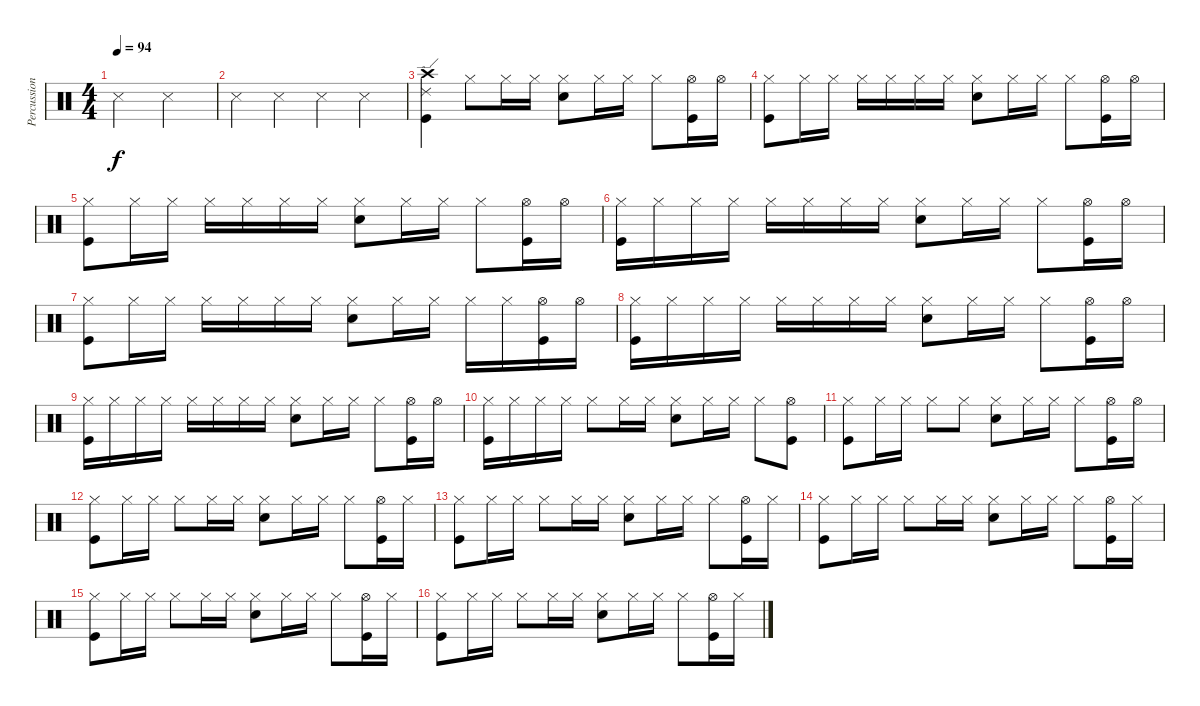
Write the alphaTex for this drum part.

\track ("Percussions" "Percussion") {instrument percussion}
\staff {score}
\articulation defaults
\ts (4 4)
\tempo 94
\clef neutral
\ks c "Snare (side stick) 3".2{dy f} "Snare (side stick) 3".2
|
"Snare (side stick) 3".4 "Snare (side stick) 3".4 "Snare (side stick) 3".4 "Snare (side stick) 3".4 |
("Crash high (hit)" "Ride (edge) 2" "Kick (hit)").4 "Hi-Hat (closed)".8 "Hi-Hat (closed)".16 "Hi-Hat (closed)".16 ("Hi-Hat (closed)" "Electric Snare (hit)").8 "Hi-Hat (closed)".16 "Hi-Hat (closed)".16 "Hi-Hat (closed)".8 ("Hi-Hat (open)" "Kick (hit)").16 "Hi-Hat (open)".16 |
("Hi-Hat (closed)" "Kick (hit)").8 "Hi-Hat (closed)".16 "Hi-Hat (closed)".16 "Hi-Hat (closed)".16 "Hi-Hat (closed)".16 "Hi-Hat (closed)".16 "Hi-Hat (closed)".16 ("Hi-Hat (closed)" "Electric Snare (hit)").8 "Hi-Hat (closed)".16 "Hi-Hat (closed)".16 "Hi-Hat (closed)".8 ("Hi-Hat (open)" "Kick (hit)").16 "Hi-Hat (open)".16 |
("Hi-Hat (closed)" "Kick (hit)").8 "Hi-Hat (closed)".16 "Hi-Hat (closed)".16 "Hi-Hat (closed)".16 "Hi-Hat (closed)".16 "Hi-Hat (closed)".16 "Hi-Hat (closed)".16 ("Hi-Hat (closed)" "Electric Snare (hit)").8 "Hi-Hat (closed)".16 "Hi-Hat (closed)".16 "Hi-Hat (closed)".8 ("Hi-Hat (open)" "Kick (hit)").16 "Hi-Hat (open)".16 |
("Hi-Hat (closed)" "Kick (hit)").16 "Hi-Hat (closed)".16 "Hi-Hat (closed)".16 "Hi-Hat (closed)".16 "Hi-Hat (closed)".16 "Hi-Hat (closed)".16 "Hi-Hat (closed)".16 "Hi-Hat (closed)".16 ("Hi-Hat (closed)" "Electric Snare (hit)").8 "Hi-Hat (closed)".16 "Hi-Hat (closed)".16 "Hi-Hat (closed)".8 ("Hi-Hat (open)" "Kick (hit)").16 "Hi-Hat (open)".16 |
("Hi-Hat (closed)" "Kick (hit)").8 "Hi-Hat (closed)".16 "Hi-Hat (closed)".16 "Hi-Hat (closed)".16 "Hi-Hat (closed)".16 "Hi-Hat (closed)".16 "Hi-Hat (closed)".16 ("Hi-Hat (closed)" "Electric Snare (hit)").8 "Hi-Hat (closed)".16 "Hi-Hat (closed)".16 "Hi-Hat (closed)".16 "Hi-Hat (closed)".16 ("Hi-Hat (open)" "Kick (hit)").16 "Hi-Hat (open)".16 |
("Hi-Hat (closed)" "Kick (hit)").16 "Hi-Hat (closed)".16 "Hi-Hat (closed)".16 "Hi-Hat (closed)".16 "Hi-Hat (closed)".16 "Hi-Hat (closed)".16 "Hi-Hat (closed)".16 "Hi-Hat (closed)".16 ("Hi-Hat (closed)" "Electric Snare (hit)").8 "Hi-Hat (closed)".16 "Hi-Hat (closed)".16 "Hi-Hat (closed)".8 ("Hi-Hat (open)" "Kick (hit)").16 "Hi-Hat (open)".16 |
("Hi-Hat (closed)" "Kick (hit)").16 "Hi-Hat (closed)".16 "Hi-Hat (closed)".16 "Hi-Hat (closed)".16 "Hi-Hat (closed)".16 "Hi-Hat (closed)".16 "Hi-Hat (closed)".16 "Hi-Hat (closed)".16 ("Hi-Hat (closed)" "Electric Snare (hit)").8 "Hi-Hat (closed)".16 "Hi-Hat (closed)".16 "Hi-Hat (closed)".8 ("Hi-Hat (open)" "Kick (hit)").16 "Hi-Hat (open)".16 |
("Hi-Hat (closed)" "Kick (hit)").16 "Hi-Hat (closed)".16 "Hi-Hat (closed)".16 "Hi-Hat (closed)".16 "Hi-Hat (closed)".8 "Hi-Hat (closed)".16 "Hi-Hat (closed)".16 ("Hi-Hat (closed)" "Electric Snare (hit)").8 "Hi-Hat (closed)".16 "Hi-Hat (closed)".16 "Hi-Hat (closed)".8 ("Hi-Hat (open)" "Kick (hit)").8 |
("Hi-Hat (closed)" "Kick (hit)").8 "Hi-Hat (closed)".16 "Hi-Hat (closed)".16 "Hi-Hat (closed)".8 "Hi-Hat (closed)".8 ("Hi-Hat (closed)" "Electric Snare (hit)").8 "Hi-Hat (closed)".16 "Hi-Hat (closed)".16 "Hi-Hat (closed)".8 ("Hi-Hat (open)" "Kick (hit)").16 "Hi-Hat (open)".16 |
("Hi-Hat (closed)" "Kick (hit)").8 "Hi-Hat (closed)".16 "Hi-Hat (closed)".16 "Hi-Hat (closed)".8 "Hi-Hat (closed)".16 "Hi-Hat (closed)".16 ("Hi-Hat (closed)" "Electric Snare (hit)").8 "Hi-Hat (closed)".16 "Hi-Hat (closed)".16 "Hi-Hat (closed)".8 ("Hi-Hat (open)" "Kick (hit)").16 "Hi-Hat (closed)".16 |
("Hi-Hat (closed)" "Kick (hit)").8 "Hi-Hat (closed)".16 "Hi-Hat (closed)".16 "Hi-Hat (closed)".8 "Hi-Hat (closed)".16 "Hi-Hat (closed)".16 ("Hi-Hat (closed)" "Electric Snare (hit)").8 "Hi-Hat (closed)".16 "Hi-Hat (closed)".16 "Hi-Hat (closed)".8 ("Hi-Hat (open)" "Kick (hit)").16 "Hi-Hat (closed)".16 |
("Hi-Hat (closed)" "Kick (hit)").8 "Hi-Hat (closed)".16 "Hi-Hat (closed)".16 "Hi-Hat (closed)".8 "Hi-Hat (closed)".16 "Hi-Hat (closed)".16 ("Hi-Hat (closed)" "Electric Snare (hit)").8 "Hi-Hat (closed)".16 "Hi-Hat (closed)".16 "Hi-Hat (closed)".8 ("Hi-Hat (open)" "Kick (hit)").16 "Hi-Hat (closed)".16 |
("Hi-Hat (closed)" "Kick (hit)").8 "Hi-Hat (closed)".16 "Hi-Hat (closed)".16 "Hi-Hat (closed)".8 "Hi-Hat (closed)".16 "Hi-Hat (closed)".16 ("Hi-Hat (closed)" "Electric Snare (hit)").8 "Hi-Hat (closed)".16 "Hi-Hat (closed)".16 "Hi-Hat (closed)".8 ("Hi-Hat (open)" "Kick (hit)").16 "Hi-Hat (closed)".16 |
("Hi-Hat (closed)" "Kick (hit)").8 "Hi-Hat (closed)".16 "Hi-Hat (closed)".16 "Hi-Hat (closed)".8 "Hi-Hat (closed)".16 "Hi-Hat (closed)".16 ("Hi-Hat (closed)" "Electric Snare (hit)").8 "Hi-Hat (closed)".16 "Hi-Hat (closed)".16 "Hi-Hat (closed)".8 ("Hi-Hat (open)" "Kick (hit)").16 "Hi-Hat (closed)".16
